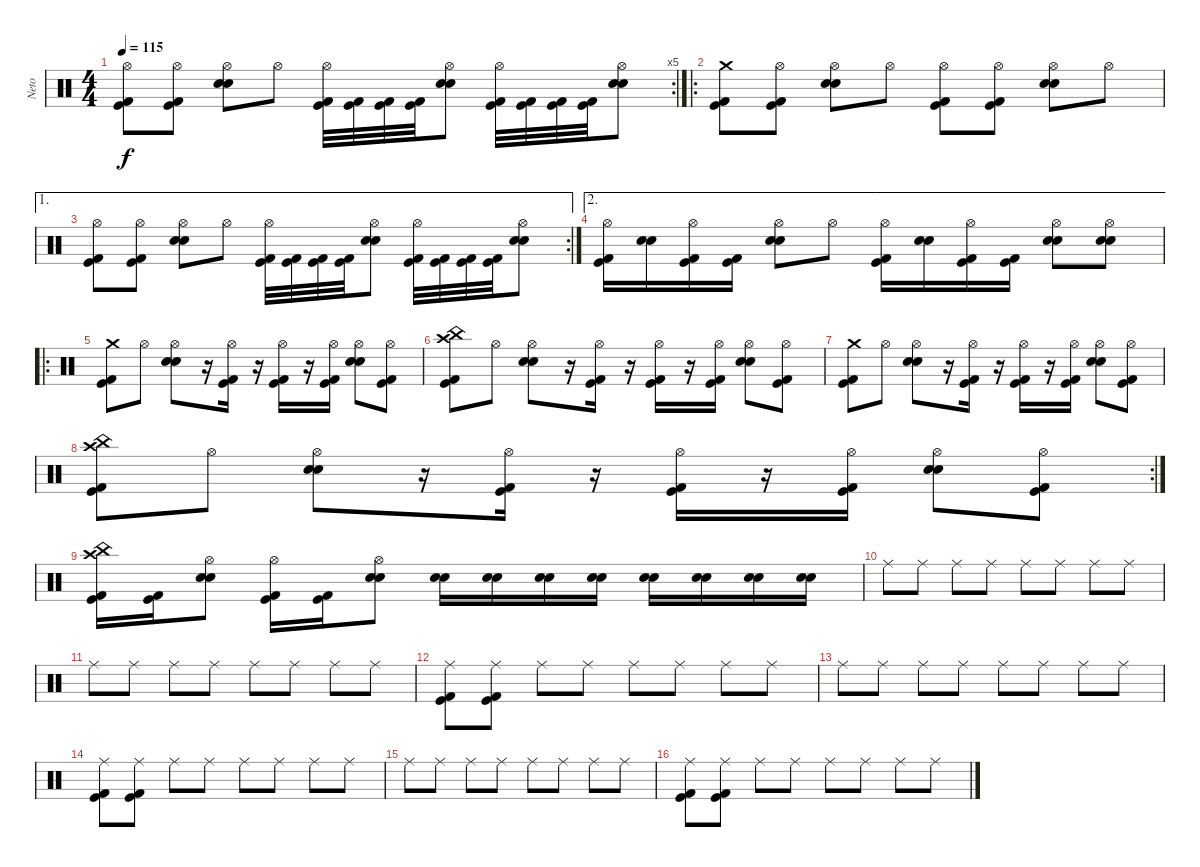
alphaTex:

\track ("Neto" "Neto") {instrument percussion}
\staff {score}
\articulation defaults
\rc 5
\ts (4 4)
\tempo 115
\clef neutral
\ks c
("Hi-Hat (open)" "Kick (hit)" "Kick (hit) 2").8{dy f} ("Hi-Hat (open)" "Kick (hit)" "Kick (hit) 2").8 ("Hi-Hat (open)" "Snare (hit) 2" "Snare (hit) 2").8 "Hi-Hat (open)".8 ("Hi-Hat (open)" "Kick (hit)" "Kick (hit) 2").32 ("Kick (hit)" "Kick (hit) 2").32 ("Kick (hit)" "Kick (hit) 2").32 ("Kick (hit)" "Kick (hit) 2").32 ("Hi-Hat (open)" "Snare (hit) 2" "Snare (hit) 2").8 ("Hi-Hat (open)" "Kick (hit)" "Kick (hit) 2").32 ("Kick (hit)" "Kick (hit) 2").32 ("Kick (hit)" "Kick (hit) 2").32 ("Kick (hit)" "Kick (hit) 2").32 ("Hi-Hat (open)" "Snare (hit) 2" "Snare (hit) 2").8 |
\ro
("Crash medium (hit)" "Kick (hit)" "Kick (hit) 2").8 ("Hi-Hat (open)" "Kick (hit)" "Kick (hit) 2").8 ("Hi-Hat (open)" "Snare (hit) 2" "Snare (hit) 2").8 "Hi-Hat (open)".8 ("Hi-Hat (open)" "Kick (hit)" "Kick (hit) 2").8 ("Hi-Hat (open)" "Kick (hit)" "Kick (hit) 2").8 ("Hi-Hat (open)" "Snare (hit) 2" "Snare (hit) 2").8 "Hi-Hat (open)".8 |
\ae 1
\rc 2
("Hi-Hat (open)" "Kick (hit)" "Kick (hit) 2").8 ("Hi-Hat (open)" "Kick (hit)" "Kick (hit) 2").8 ("Hi-Hat (open)" "Snare (hit) 2" "Snare (hit) 2").8 "Hi-Hat (open)".8 ("Hi-Hat (open)" "Kick (hit)" "Kick (hit) 2").32 ("Kick (hit)" "Kick (hit) 2").32 ("Kick (hit)" "Kick (hit) 2").32 ("Kick (hit)" "Kick (hit) 2").32 ("Hi-Hat (open)" "Snare (hit) 2" "Snare (hit) 2").8 ("Hi-Hat (open)" "Kick (hit)" "Kick (hit) 2").32 ("Kick (hit)" "Kick (hit) 2").32 ("Kick (hit)" "Kick (hit) 2").32 ("Kick (hit)" "Kick (hit) 2").32 ("Hi-Hat (open)" "Snare (hit) 2" "Snare (hit) 2").8 |
\ae 2
("Hi-Hat (open)" "Kick (hit)" "Kick (hit) 2").16 ("Snare (hit) 2" "Snare (hit) 2").16 ("Hi-Hat (open)" "Kick (hit)" "Kick (hit) 2").16 ("Kick (hit)" "Kick (hit) 2").16 ("Hi-Hat (open)" "Snare (hit) 2" "Snare (hit) 2").8 "Hi-Hat (open)".8 ("Hi-Hat (open)" "Kick (hit)" "Kick (hit) 2").16 ("Snare (hit) 2" "Snare (hit) 2").16 ("Hi-Hat (open)" "Kick (hit)" "Kick (hit) 2").16 ("Kick (hit)" "Kick (hit) 2").16 ("Hi-Hat (open)" "Snare (hit) 2" "Snare (hit) 2").8 ("Hi-Hat (open)" "Snare (hit) 2" "Snare (hit) 2").8 |
\ro
("Crash medium (hit)" "Kick (hit)" "Kick (hit) 2").8 "Hi-Hat (open)".8 ("Hi-Hat (open)" "Snare (hit) 2" "Snare (hit) 2").8 r.16 ("Hi-Hat (open)" "Kick (hit)" "Kick (hit) 2").16 r.16 ("Hi-Hat (open)" "Kick (hit)" "Kick (hit) 2").16 r.16 ("Hi-Hat (open)" "Kick (hit)" "Kick (hit) 2").16 ("Hi-Hat (open)" "Snare (hit) 2" "Snare (hit) 2").8 ("Hi-Hat (open)" "Kick (hit)" "Kick (hit) 2").8 |
("Crash high (hit)" "China (hit)" "Kick (hit)" "Kick (hit) 2").8 "Hi-Hat (open)".8 ("Hi-Hat (open)" "Snare (hit) 2" "Snare (hit) 2").8 r.16 ("Hi-Hat (open)" "Kick (hit)" "Kick (hit) 2").16 r.16 ("Hi-Hat (open)" "Kick (hit)" "Kick (hit) 2").16 r.16 ("Hi-Hat (open)" "Kick (hit)" "Kick (hit) 2").16 ("Hi-Hat (open)" "Snare (hit) 2" "Snare (hit) 2").8 ("Hi-Hat (open)" "Kick (hit)" "Kick (hit) 2").8 |
("Crash medium (hit)" "Kick (hit)" "Kick (hit) 2").8 "Hi-Hat (open)".8 ("Hi-Hat (open)" "Snare (hit) 2" "Snare (hit) 2").8 r.16 ("Hi-Hat (open)" "Kick (hit)" "Kick (hit) 2").16 r.16 ("Hi-Hat (open)" "Kick (hit)" "Kick (hit) 2").16 r.16 ("Hi-Hat (open)" "Kick (hit)" "Kick (hit) 2").16 ("Hi-Hat (open)" "Snare (hit) 2" "Snare (hit) 2").8 ("Hi-Hat (open)" "Kick (hit)" "Kick (hit) 2").8 |
\rc 2
("Crash high (hit)" "China (hit)" "Kick (hit)" "Kick (hit) 2").8 "Hi-Hat (open)".8 ("Hi-Hat (open)" "Snare (hit) 2" "Snare (hit) 2").8 r.16 ("Hi-Hat (open)" "Kick (hit)" "Kick (hit) 2").16 r.16 ("Hi-Hat (open)" "Kick (hit)" "Kick (hit) 2").16 r.16 ("Hi-Hat (open)" "Kick (hit)" "Kick (hit) 2").16 ("Hi-Hat (open)" "Snare (hit) 2" "Snare (hit) 2").8 ("Hi-Hat (open)" "Kick (hit)" "Kick (hit) 2").8 |
("Crash high (hit)" "China (hit)" "Kick (hit)" "Kick (hit) 2").16 ("Kick (hit)" "Kick (hit) 2").16 ("Hi-Hat (open)" "Snare (hit) 2" "Snare (hit) 2").8 ("Hi-Hat (open)" "Kick (hit)" "Kick (hit) 2").16 ("Kick (hit)" "Kick (hit) 2").16 ("Hi-Hat (open)" "Snare (hit) 2" "Snare (hit) 2").8 ("Snare (hit) 2" "Snare (hit) 2").16 ("Snare (hit) 2" "Snare (hit) 2").16 ("Snare (hit) 2" "Snare (hit) 2").16 ("Snare (hit) 2" "Snare (hit) 2").16 ("Snare (hit) 2" "Snare (hit) 2").16 ("Snare (hit) 2" "Snare (hit) 2").16 ("Snare (hit) 2" "Snare (hit) 2").16 ("Snare (hit) 2" "Snare (hit) 2").16 |
"Ride (middle)".8 "Ride (middle)".8 "Ride (middle)".8 "Ride (middle)".8 "Ride (middle)".8 "Ride (middle)".8 "Ride (middle)".8 "Ride (middle)".8 |
"Ride (middle)".8 "Ride (middle)".8 "Ride (middle)".8 "Ride (middle)".8 "Ride (middle)".8 "Ride (middle)".8 "Ride (middle)".8 "Ride (middle)".8 |
("Ride (middle)" "Kick (hit)" "Kick (hit) 2").8 ("Ride (middle)" "Kick (hit)" "Kick (hit) 2").8 "Ride (middle)".8 "Ride (middle)".8 "Ride (middle)".8 "Ride (middle)".8 "Ride (middle)".8 "Ride (middle)".8 |
"Ride (middle)".8 "Ride (middle)".8 "Ride (middle)".8 "Ride (middle)".8 "Ride (middle)".8 "Ride (middle)".8 "Ride (middle)".8 "Ride (middle)".8 |
("Ride (middle)" "Kick (hit)" "Kick (hit) 2").8 ("Ride (middle)" "Kick (hit)" "Kick (hit) 2").8 "Ride (middle)".8 "Ride (middle)".8 "Ride (middle)".8 "Ride (middle)".8 "Ride (middle)".8 "Ride (middle)".8 |
"Ride (middle)".8 "Ride (middle)".8 "Ride (middle)".8 "Ride (middle)".8 "Ride (middle)".8 "Ride (middle)".8 "Ride (middle)".8 "Ride (middle)".8 |
("Ride (middle)" "Kick (hit)" "Kick (hit) 2").8 ("Ride (middle)" "Kick (hit)" "Kick (hit) 2").8 "Ride (middle)".8 "Ride (middle)".8 "Ride (middle)".8 "Ride (middle)".8 "Ride (middle)".8 "Ride (middle)".8
